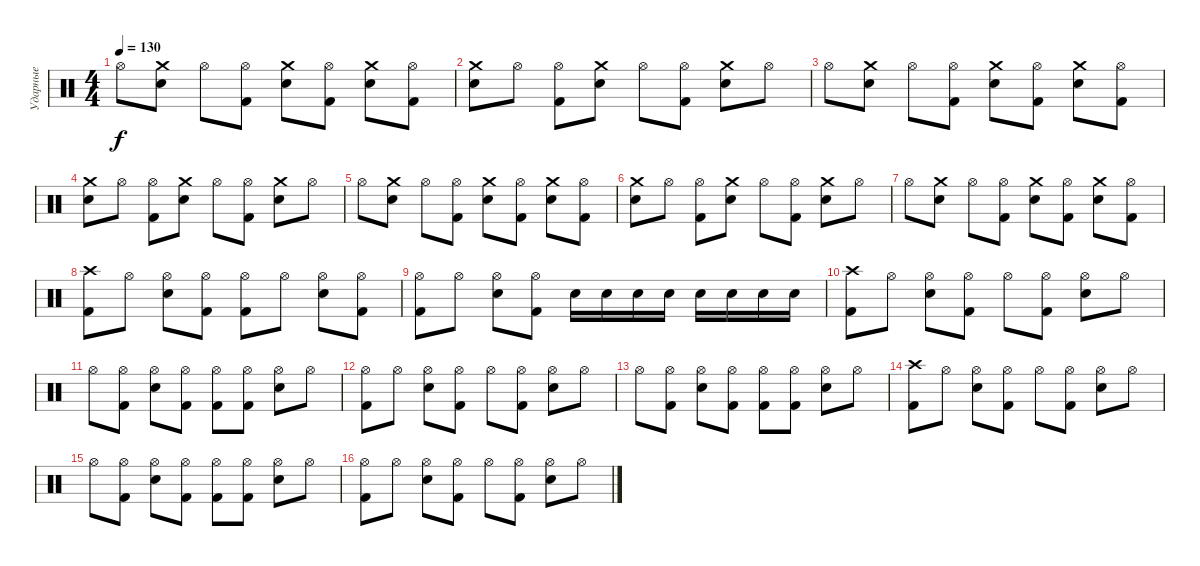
\track ("Ударные" "Ударные") {instrument percussion}
\staff {score}
\articulation defaults
\ts (4 4)
\tempo 130
\clef neutral
\ks c "Hi-Hat (open)".8{dy f}
("Crash medium (hit)" "Snare (hit) 2").8 "Hi-Hat (open)".8 ("Hi-Hat (open)" "Kick (hit) 2").8 ("Crash medium (hit)" "Snare (hit) 2").8 ("Hi-Hat (open)" "Kick (hit) 2").8 ("Crash medium (hit)" "Snare (hit) 2").8 ("Hi-Hat (open)" "Kick (hit) 2").8 |
("Crash medium (hit)" "Snare (hit) 2").8 "Hi-Hat (open)".8 ("Hi-Hat (open)" "Kick (hit) 2").8 ("Crash medium (hit)" "Snare (hit) 2").8 "Hi-Hat (open)".8 ("Hi-Hat (open)" "Kick (hit) 2").8 ("Crash medium (hit)" "Snare (hit) 2").8 "Hi-Hat (open)".8 |
"Hi-Hat (open)".8 ("Crash medium (hit)" "Snare (hit) 2").8 "Hi-Hat (open)".8 ("Hi-Hat (open)" "Kick (hit) 2").8 ("Crash medium (hit)" "Snare (hit) 2").8 ("Hi-Hat (open)" "Kick (hit) 2").8 ("Crash medium (hit)" "Snare (hit) 2").8 ("Hi-Hat (open)" "Kick (hit) 2").8 |
("Crash medium (hit)" "Snare (hit) 2").8 "Hi-Hat (open)".8 ("Hi-Hat (open)" "Kick (hit) 2").8 ("Crash medium (hit)" "Snare (hit) 2").8 "Hi-Hat (open)".8 ("Hi-Hat (open)" "Kick (hit) 2").8 ("Crash medium (hit)" "Snare (hit) 2").8 "Hi-Hat (open)".8 |
"Hi-Hat (open)".8 ("Crash medium (hit)" "Snare (hit) 2").8 "Hi-Hat (open)".8 ("Hi-Hat (open)" "Kick (hit) 2").8 ("Crash medium (hit)" "Snare (hit) 2").8 ("Hi-Hat (open)" "Kick (hit) 2").8 ("Crash medium (hit)" "Snare (hit) 2").8 ("Hi-Hat (open)" "Kick (hit) 2").8 |
("Crash medium (hit)" "Snare (hit) 2").8 "Hi-Hat (open)".8 ("Hi-Hat (open)" "Kick (hit) 2").8 ("Crash medium (hit)" "Snare (hit) 2").8 "Hi-Hat (open)".8 ("Hi-Hat (open)" "Kick (hit) 2").8 ("Crash medium (hit)" "Snare (hit) 2").8 "Hi-Hat (open)".8 |
"Hi-Hat (open)".8 ("Crash medium (hit)" "Snare (hit) 2").8 "Hi-Hat (open)".8 ("Hi-Hat (open)" "Kick (hit) 2").8 ("Crash medium (hit)" "Snare (hit) 2").8 ("Hi-Hat (open)" "Kick (hit) 2").8 ("Crash medium (hit)" "Snare (hit) 2").8 ("Hi-Hat (open)" "Kick (hit) 2").8 |
("Crash high (hit)" "Kick (hit) 2").8 "Hi-Hat (open)".8 ("Hi-Hat (open)" "Snare (hit) 2").8 ("Hi-Hat (open)" "Kick (hit) 2").8 ("Hi-Hat (open)" "Kick (hit) 2").8 "Hi-Hat (open)".8 ("Hi-Hat (open)" "Snare (hit) 2").8 ("Hi-Hat (open)" "Kick (hit) 2").8 |
("Hi-Hat (open)" "Kick (hit) 2").8 "Hi-Hat (open)".8 ("Hi-Hat (open)" "Snare (hit) 2").8 ("Hi-Hat (open)" "Kick (hit) 2").8 "Snare (hit) 2".16 "Snare (hit) 2".16 "Snare (hit) 2".16 "Snare (hit) 2".16 "Snare (hit) 2".16 "Snare (hit) 2".16 "Snare (hit) 2".16 "Snare (hit) 2".16 |
("Crash high (hit)" "Kick (hit) 2").8 "Hi-Hat (open)".8 ("Hi-Hat (open)" "Snare (hit) 2").8 ("Hi-Hat (open)" "Kick (hit) 2").8 "Hi-Hat (open)".8 ("Hi-Hat (open)" "Kick (hit) 2").8 ("Hi-Hat (open)" "Snare (hit) 2").8 "Hi-Hat (open)".8 |
"Hi-Hat (open)".8 ("Hi-Hat (open)" "Kick (hit) 2").8 ("Hi-Hat (open)" "Snare (hit) 2").8 ("Hi-Hat (open)" "Kick (hit) 2").8 ("Hi-Hat (open)" "Kick (hit) 2").8 ("Hi-Hat (open)" "Kick (hit) 2").8 ("Hi-Hat (open)" "Snare (hit) 2").8 "Hi-Hat (open)".8 |
("Hi-Hat (open)" "Kick (hit) 2").8 "Hi-Hat (open)".8 ("Hi-Hat (open)" "Snare (hit) 2").8 ("Hi-Hat (open)" "Kick (hit) 2").8 "Hi-Hat (open)".8 ("Hi-Hat (open)" "Kick (hit) 2").8 ("Hi-Hat (open)" "Snare (hit) 2").8 "Hi-Hat (open)".8 |
"Hi-Hat (open)".8 ("Hi-Hat (open)" "Kick (hit) 2").8 ("Hi-Hat (open)" "Snare (hit) 2").8 ("Hi-Hat (open)" "Kick (hit) 2").8 ("Hi-Hat (open)" "Kick (hit) 2").8 ("Hi-Hat (open)" "Kick (hit) 2").8 ("Hi-Hat (open)" "Snare (hit) 2").8 "Hi-Hat (open)".8 |
("Crash high (hit)" "Kick (hit) 2").8 "Hi-Hat (open)".8 ("Hi-Hat (open)" "Snare (hit) 2").8 ("Hi-Hat (open)" "Kick (hit) 2").8 "Hi-Hat (open)".8 ("Hi-Hat (open)" "Kick (hit) 2").8 ("Hi-Hat (open)" "Snare (hit) 2").8 "Hi-Hat (open)".8 |
"Hi-Hat (open)".8 ("Hi-Hat (open)" "Kick (hit) 2").8 ("Hi-Hat (open)" "Snare (hit) 2").8 ("Hi-Hat (open)" "Kick (hit) 2").8 ("Hi-Hat (open)" "Kick (hit) 2").8 ("Hi-Hat (open)" "Kick (hit) 2").8 ("Hi-Hat (open)" "Snare (hit) 2").8 "Hi-Hat (open)".8 |
("Hi-Hat (open)" "Kick (hit) 2").8 "Hi-Hat (open)".8 ("Hi-Hat (open)" "Snare (hit) 2").8 ("Hi-Hat (open)" "Kick (hit) 2").8 "Hi-Hat (open)".8 ("Hi-Hat (open)" "Kick (hit) 2").8 ("Hi-Hat (open)" "Snare (hit) 2").8 "Hi-Hat (open)".8
